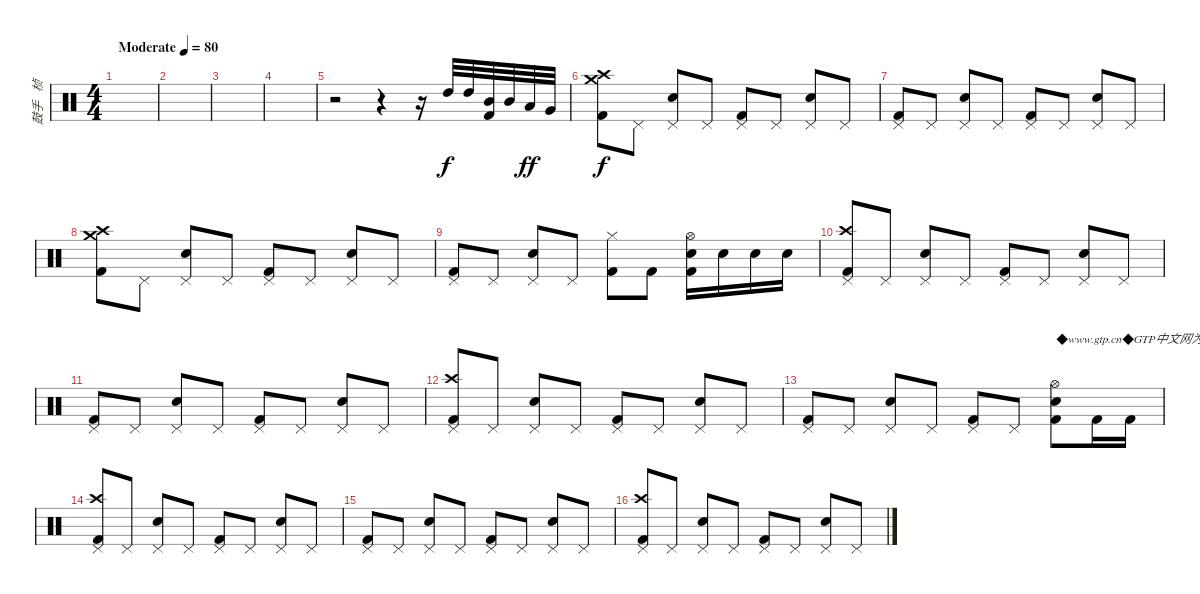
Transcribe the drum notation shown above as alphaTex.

\track ("鼓手   桢" "鼓手   桢") {instrument percussion}
\staff {score}
\articulation defaults
\ts (4 4)
\tempo (80 "Moderate")
\clef neutral
\ks c
|
|
|
|
r.2 r.4 r.16 "High Tom (hit)".32 "High Tom (hit)".32 ("Mid Tom (hit)" "Kick (hit) 2").32 "Mid Tom (hit)".32 "Low Tom (hit)".32{dy ff} "Very Low Tom (hit)".32 |
("Crash high (hit)" "Crash medium (hit)" "Kick (hit) 2").8{dy f} "Pedal Hi-Hat (hit)".8 ("Pedal Hi-Hat (hit)" "Snare (hit) 2").8 "Pedal Hi-Hat (hit)".8 ("Pedal Hi-Hat (hit)" "Kick (hit) 2").8 "Pedal Hi-Hat (hit)".8 ("Pedal Hi-Hat (hit)" "Snare (hit) 2").8 "Pedal Hi-Hat (hit)".8 |
("Pedal Hi-Hat (hit)" "Kick (hit) 2").8 "Pedal Hi-Hat (hit)".8 ("Pedal Hi-Hat (hit)" "Snare (hit) 2").8 "Pedal Hi-Hat (hit)".8 ("Pedal Hi-Hat (hit)" "Kick (hit) 2").8 "Pedal Hi-Hat (hit)".8 ("Pedal Hi-Hat (hit)" "Snare (hit) 2").8 "Pedal Hi-Hat (hit)".8 |
("Crash high (hit)" "Crash medium (hit)" "Kick (hit) 2").8 "Pedal Hi-Hat (hit)".8 ("Pedal Hi-Hat (hit)" "Snare (hit) 2").8 "Pedal Hi-Hat (hit)".8 ("Pedal Hi-Hat (hit)" "Kick (hit) 2").8 "Pedal Hi-Hat (hit)".8 ("Pedal Hi-Hat (hit)" "Snare (hit) 2").8 "Pedal Hi-Hat (hit)".8 |
("Pedal Hi-Hat (hit)" "Kick (hit) 2").8 "Pedal Hi-Hat (hit)".8 ("Pedal Hi-Hat (hit)" "Snare (hit) 2").8 "Pedal Hi-Hat (hit)".8 ("Hi-Hat (closed)" "Kick (hit) 2").8 "Kick (hit) 2".8 ("Hi-Hat (open)" "Snare (hit) 2" "Kick (hit) 2").16 "Snare (hit) 2".16 "Snare (hit) 2".16 "Snare (hit) 2".16 |
("Pedal Hi-Hat (hit)" "Kick (hit) 2" "Crash high (hit)").8 "Pedal Hi-Hat (hit)".8 ("Pedal Hi-Hat (hit)" "Snare (hit) 2").8 "Pedal Hi-Hat (hit)".8 ("Pedal Hi-Hat (hit)" "Kick (hit) 2").8 "Pedal Hi-Hat (hit)".8 ("Pedal Hi-Hat (hit)" "Snare (hit) 2").8 "Pedal Hi-Hat (hit)".8 |
("Pedal Hi-Hat (hit)" "Kick (hit) 2").8 "Pedal Hi-Hat (hit)".8 ("Pedal Hi-Hat (hit)" "Snare (hit) 2").8 "Pedal Hi-Hat (hit)".8 ("Pedal Hi-Hat (hit)" "Kick (hit) 2").8 "Pedal Hi-Hat (hit)".8 ("Pedal Hi-Hat (hit)" "Snare (hit) 2").8 "Pedal Hi-Hat (hit)".8 |
("Pedal Hi-Hat (hit)" "Kick (hit) 2" "Crash high (hit)").8 "Pedal Hi-Hat (hit)".8 ("Pedal Hi-Hat (hit)" "Snare (hit) 2").8 "Pedal Hi-Hat (hit)".8 ("Pedal Hi-Hat (hit)" "Kick (hit) 2").8 "Pedal Hi-Hat (hit)".8 ("Pedal Hi-Hat (hit)" "Snare (hit) 2").8 "Pedal Hi-Hat (hit)".8 |
("Pedal Hi-Hat (hit)" "Kick (hit) 2").8 "Pedal Hi-Hat (hit)".8 ("Pedal Hi-Hat (hit)" "Snare (hit) 2").8 "Pedal Hi-Hat (hit)".8 ("Pedal Hi-Hat (hit)" "Kick (hit) 2").8 "Pedal Hi-Hat (hit)".8 ("Hi-Hat (open)" "Snare (hit) 2" "Kick (hit) 2").8{txt "◆www.gtp.cn◆GTP中文网为您提供优秀的GTP！"} "Kick (hit) 2".16 "Kick (hit) 2".16 |
("Pedal Hi-Hat (hit)" "Kick (hit) 2" "Crash high (hit)").8 "Pedal Hi-Hat (hit)".8 ("Pedal Hi-Hat (hit)" "Snare (hit) 2").8 "Pedal Hi-Hat (hit)".8 ("Pedal Hi-Hat (hit)" "Kick (hit) 2").8 "Pedal Hi-Hat (hit)".8 ("Pedal Hi-Hat (hit)" "Snare (hit) 2").8 "Pedal Hi-Hat (hit)".8 |
("Pedal Hi-Hat (hit)" "Kick (hit) 2").8 "Pedal Hi-Hat (hit)".8 ("Pedal Hi-Hat (hit)" "Snare (hit) 2").8 "Pedal Hi-Hat (hit)".8 ("Pedal Hi-Hat (hit)" "Kick (hit) 2").8 "Pedal Hi-Hat (hit)".8 ("Pedal Hi-Hat (hit)" "Snare (hit) 2").8 "Pedal Hi-Hat (hit)".8 |
("Pedal Hi-Hat (hit)" "Kick (hit) 2" "Crash high (hit)").8 "Pedal Hi-Hat (hit)".8 ("Pedal Hi-Hat (hit)" "Snare (hit) 2").8 "Pedal Hi-Hat (hit)".8 ("Pedal Hi-Hat (hit)" "Kick (hit) 2").8 "Pedal Hi-Hat (hit)".8 ("Pedal Hi-Hat (hit)" "Snare (hit) 2").8 "Pedal Hi-Hat (hit)".8
